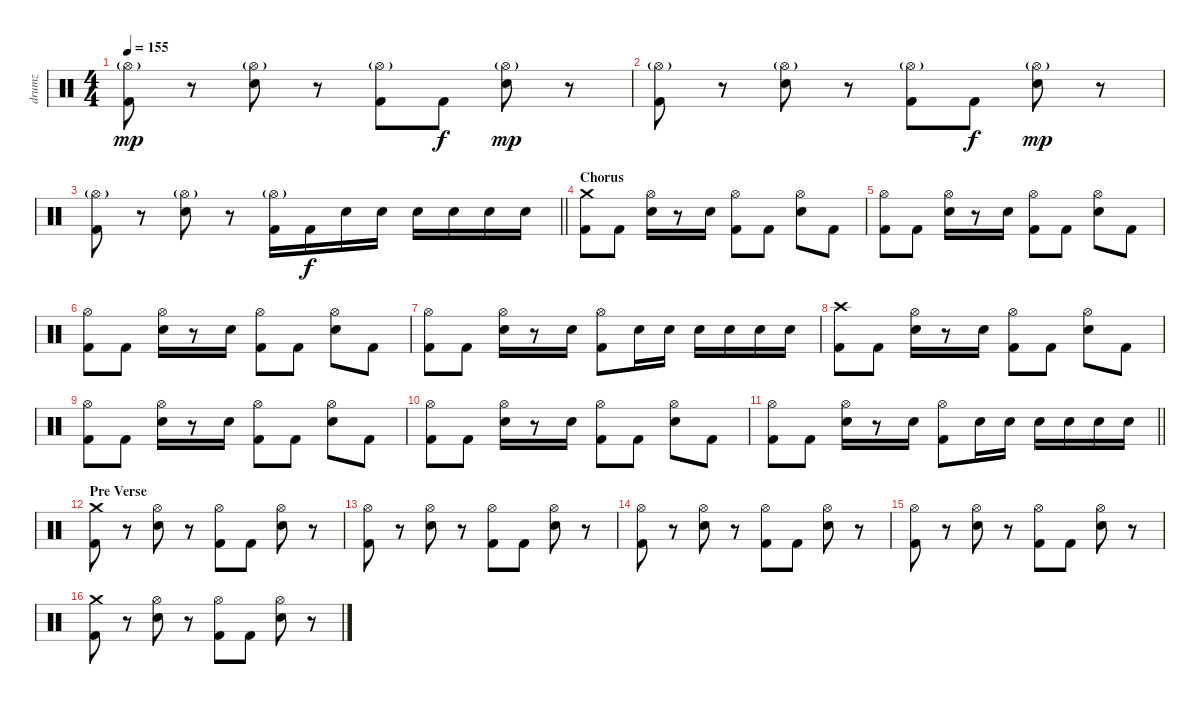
\track ("drumz" "drumz") {instrument percussion}
\staff {score}
\articulation defaults
\ts (4 4)
\tempo 155
\clef neutral
\ks c
("Hi-Hat (open)"{g} "Kick (hit) 2").8{dy mp} r.8 ("Hi-Hat (open)"{g} "Electric Snare (hit)").8 r.8 ("Hi-Hat (open)"{g} "Kick (hit) 2").8 "Kick (hit) 2".8{dy f} ("Hi-Hat (open)"{g} "Electric Snare (hit)").8{dy mp} r.8 |
("Hi-Hat (open)"{g} "Kick (hit) 2").8 r.8 ("Hi-Hat (open)"{g} "Electric Snare (hit)").8 r.8 ("Hi-Hat (open)"{g} "Kick (hit) 2").8 "Kick (hit) 2".8{dy f} ("Hi-Hat (open)"{g} "Electric Snare (hit)").8{dy mp} r.8 |
\barLineRight lightlight
("Hi-Hat (open)"{g} "Kick (hit) 2").8 r.8 ("Hi-Hat (open)"{g} "Electric Snare (hit)").8 r.8 ("Hi-Hat (open)"{g} "Kick (hit) 2").16 "Kick (hit) 2".16{dy f} "Electric Snare (hit)".16 "Electric Snare (hit)".16 "Electric Snare (hit)".16 "Electric Snare (hit)".16 "Electric Snare (hit)".16 "Electric Snare (hit)".16 |
\section ("" "Chorus")
("Crash medium (hit)" "Kick (hit) 2").8 "Kick (hit) 2".8 ("Hi-Hat (open)" "Electric Snare (hit)").16 r.8 "Electric Snare (hit)".16 ("Hi-Hat (open)" "Kick (hit) 2").8 "Kick (hit) 2".8 ("Hi-Hat (open)" "Electric Snare (hit)").8 "Kick (hit) 2".8 |
("Hi-Hat (open)" "Kick (hit) 2").8 "Kick (hit) 2".8 ("Hi-Hat (open)" "Electric Snare (hit)").16 r.8 "Electric Snare (hit)".16 ("Hi-Hat (open)" "Kick (hit) 2").8 "Kick (hit) 2".8 ("Hi-Hat (open)" "Electric Snare (hit)").8 "Kick (hit) 2".8 |
("Hi-Hat (open)" "Kick (hit) 2").8 "Kick (hit) 2".8 ("Hi-Hat (open)" "Electric Snare (hit)").16 r.8 "Electric Snare (hit)".16 ("Hi-Hat (open)" "Kick (hit) 2").8 "Kick (hit) 2".8 ("Hi-Hat (open)" "Electric Snare (hit)").8 "Kick (hit) 2".8 |
("Hi-Hat (open)" "Kick (hit) 2").8 "Kick (hit) 2".8 ("Hi-Hat (open)" "Electric Snare (hit)").16 r.8 "Electric Snare (hit)".16 ("Hi-Hat (open)" "Kick (hit) 2").8 "Electric Snare (hit)".16 "Electric Snare (hit)".16 "Electric Snare (hit)".16 "Electric Snare (hit)".16 "Electric Snare (hit)".16 "Electric Snare (hit)".16 |
("Crash high (hit)" "Kick (hit) 2").8 "Kick (hit) 2".8 ("Hi-Hat (open)" "Electric Snare (hit)").16 r.8 "Electric Snare (hit)".16 ("Hi-Hat (open)" "Kick (hit) 2").8 "Kick (hit) 2".8 ("Hi-Hat (open)" "Electric Snare (hit)").8 "Kick (hit) 2".8 |
("Hi-Hat (open)" "Kick (hit) 2").8 "Kick (hit) 2".8 ("Hi-Hat (open)" "Electric Snare (hit)").16 r.8 "Electric Snare (hit)".16 ("Hi-Hat (open)" "Kick (hit) 2").8 "Kick (hit) 2".8 ("Hi-Hat (open)" "Electric Snare (hit)").8 "Kick (hit) 2".8 |
("Hi-Hat (open)" "Kick (hit) 2").8 "Kick (hit) 2".8 ("Hi-Hat (open)" "Electric Snare (hit)").16 r.8 "Electric Snare (hit)".16 ("Hi-Hat (open)" "Kick (hit) 2").8 "Kick (hit) 2".8 ("Hi-Hat (open)" "Electric Snare (hit)").8 "Kick (hit) 2".8 |
\barLineRight lightlight
("Hi-Hat (open)" "Kick (hit) 2").8 "Kick (hit) 2".8 ("Hi-Hat (open)" "Electric Snare (hit)").16 r.8 "Electric Snare (hit)".16 ("Hi-Hat (open)" "Kick (hit) 2").8 "Electric Snare (hit)".16 "Electric Snare (hit)".16 "Electric Snare (hit)".16 "Electric Snare (hit)".16 "Electric Snare (hit)".16 "Electric Snare (hit)".16 |
\section ("" "Pre Verse")
("Crash medium (hit)" "Kick (hit) 2").8 r.8 ("Hi-Hat (open)" "Electric Snare (hit)").8 r.8 ("Hi-Hat (open)" "Kick (hit) 2").8 "Kick (hit) 2".8 ("Hi-Hat (open)" "Electric Snare (hit)").8 r.8 |
("Hi-Hat (open)" "Kick (hit) 2").8 r.8 ("Hi-Hat (open)" "Electric Snare (hit)").8 r.8 ("Hi-Hat (open)" "Kick (hit) 2").8 "Kick (hit) 2".8 ("Hi-Hat (open)" "Electric Snare (hit)").8 r.8 |
("Hi-Hat (open)" "Kick (hit) 2").8 r.8 ("Hi-Hat (open)" "Electric Snare (hit)").8 r.8 ("Hi-Hat (open)" "Kick (hit) 2").8 "Kick (hit) 2".8 ("Hi-Hat (open)" "Electric Snare (hit)").8 r.8 |
("Hi-Hat (open)" "Kick (hit) 2").8 r.8 ("Hi-Hat (open)" "Electric Snare (hit)").8 r.8 ("Hi-Hat (open)" "Kick (hit) 2").8 "Kick (hit) 2".8 ("Hi-Hat (open)" "Electric Snare (hit)").8 r.8 |
("Crash medium (hit)" "Kick (hit) 2").8 r.8 ("Hi-Hat (open)" "Electric Snare (hit)").8 r.8 ("Hi-Hat (open)" "Kick (hit) 2").8 "Kick (hit) 2".8 ("Hi-Hat (open)" "Electric Snare (hit)").8 r.8
